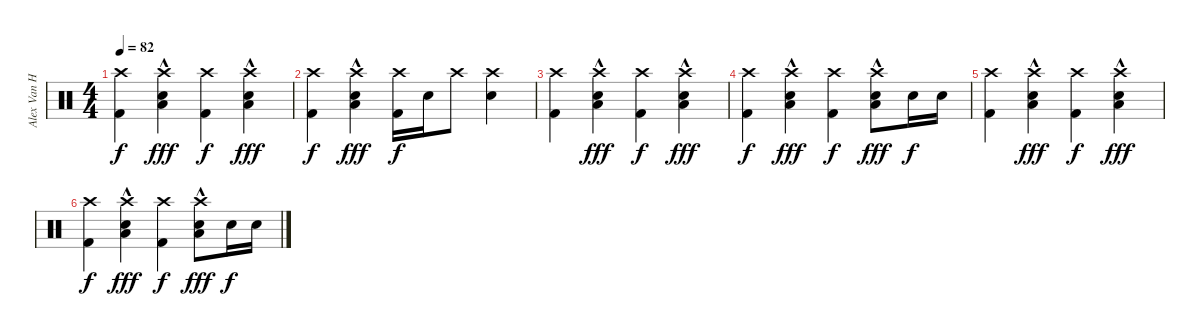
\track ("Alex Van Halen" "Alex Van H") {instrument percussion}
\staff {score}
\articulation defaults
\ts (4 4)
\tempo 82
\clef neutral
\ks c
("Crash high (hit)" "Kick (hit) 2").4{dy f} ("Crash high (hit)" "Low Tom (hit)"{hac} "Electric Snare (hit)").4{dy fff} ("Crash high (hit)" "Kick (hit) 2").4{dy f} ("Crash high (hit)" "Low Tom (hit)"{hac} "Electric Snare (hit)").4{dy fff} |
("Crash high (hit)" "Kick (hit) 2").4{dy f} ("Crash high (hit)" "Low Tom (hit)"{hac} "Electric Snare (hit)").4{dy fff} ("Crash high (hit)" "Kick (hit) 2").16{dy f} "Electric Snare (hit)".16 "Crash high (hit)".8 ("Crash high (hit)" "Electric Snare (hit)").4 |
("Crash high (hit)" "Kick (hit) 2").4 ("Crash high (hit)" "Low Tom (hit)"{hac} "Electric Snare (hit)").4{dy fff} ("Crash high (hit)" "Kick (hit) 2").4{dy f} ("Crash high (hit)" "Low Tom (hit)"{hac} "Electric Snare (hit)").4{dy fff} |
("Crash high (hit)" "Kick (hit) 2").4{dy f} ("Crash high (hit)" "Low Tom (hit)"{hac} "Electric Snare (hit)").4{dy fff} ("Crash high (hit)" "Kick (hit) 2").4{dy f} ("Crash high (hit)" "Low Tom (hit)"{hac} "Electric Snare (hit)").8{dy fff} "Electric Snare (hit)".16{dy f} "Electric Snare (hit)".16 |
("Crash high (hit)" "Kick (hit) 2").4 ("Crash high (hit)" "Low Tom (hit)"{hac} "Electric Snare (hit)").4{dy fff} ("Crash high (hit)" "Kick (hit) 2").4{dy f} ("Crash high (hit)" "Low Tom (hit)"{hac} "Electric Snare (hit)").4{dy fff} |
("Crash high (hit)" "Kick (hit) 2").4{dy f} ("Crash high (hit)" "Low Tom (hit)"{hac} "Electric Snare (hit)").4{dy fff} ("Crash high (hit)" "Kick (hit) 2").4{dy f} ("Crash high (hit)" "Low Tom (hit)"{hac} "Electric Snare (hit)").8{dy fff} "Electric Snare (hit)".16{dy f} "Electric Snare (hit)".16
